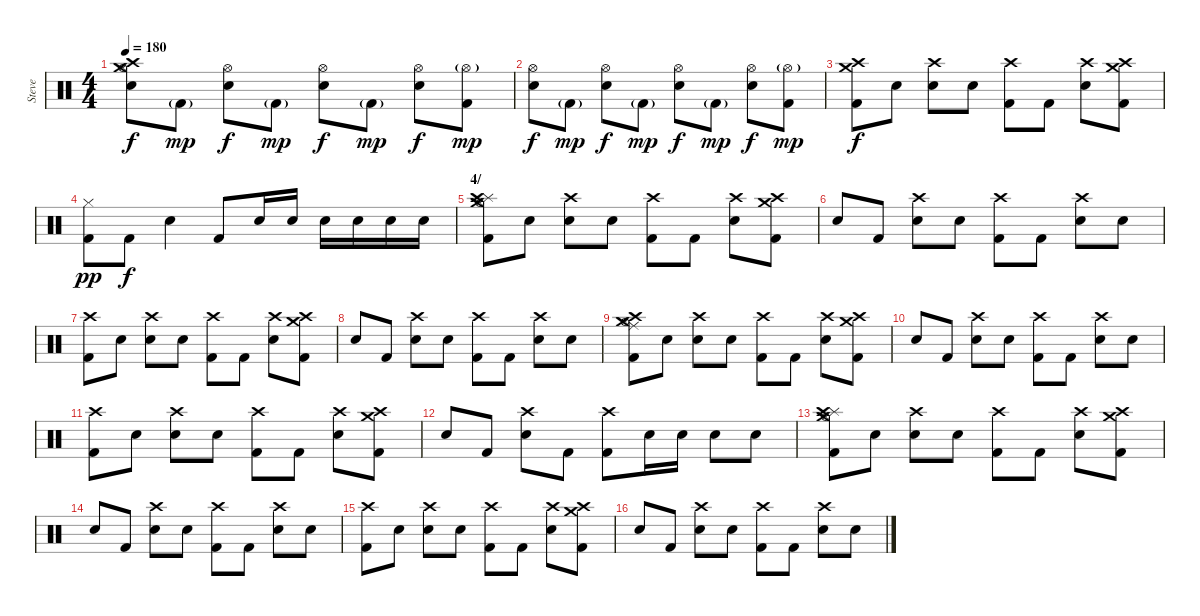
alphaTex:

\track ("Steve" "Steve") {instrument percussion}
\staff {score}
\articulation defaults
\ts (4 4)
\tempo 180
\clef neutral
\ks c
("Crash medium (hit)" "Crash high (hit)" "Hi-Hat (open)" "Electric Snare (hit)").8{dy f} "Kick (hit) 2"{g}.8{dy mp} ("Hi-Hat (open)" "Electric Snare (hit)").8{dy f} "Kick (hit) 2"{g}.8{dy mp} ("Hi-Hat (open)" "Electric Snare (hit)").8{dy f} "Kick (hit) 2"{g}.8{dy mp} ("Hi-Hat (open)" "Electric Snare (hit)").8{dy f} ("Hi-Hat (open)"{g} "Kick (hit) 2").8{dy mp} |
("Hi-Hat (open)" "Electric Snare (hit)").8{dy f} "Kick (hit) 2"{g}.8{dy mp} ("Hi-Hat (open)" "Electric Snare (hit)").8{dy f} "Kick (hit) 2"{g}.8{dy mp} ("Hi-Hat (open)" "Electric Snare (hit)").8{dy f} "Kick (hit) 2"{g}.8{dy mp} ("Hi-Hat (open)" "Electric Snare (hit)").8{dy f} ("Hi-Hat (open)"{g} "Kick (hit) 2").8{dy mp} |
("Crash medium (hit)" "Crash high (hit)" "Kick (hit) 2").8{dy f} "Snare (hit)"{x}.8 ("Crash high (hit)" "Electric Snare (hit)").8 "Snare (hit)"{x}.8 ("Crash high (hit)" "Kick (hit) 2").8 "Kick (hit) 2".8 ("Crash high (hit)" "Electric Snare (hit)").8 ("Crash high (hit)" "Crash medium (hit)" "Kick (hit) 2").8 |
("Hi-Hat (closed)" "Kick (hit) 2").8{dy pp} "Kick (hit) 2".8{dy f} "Electric Snare (hit)".4 "Kick (hit) 2".8 "Electric Snare (hit)".16 "Electric Snare (hit)".16 "Electric Snare (hit)".16 "Electric Snare (hit)".16 "Electric Snare (hit)".16 "Electric Snare (hit)".16 |
\section ("" "4/")
("Splash (hit)" "Hi-Hat (open)" "Crash medium (hit)" "Crash high (hit)" "Kick (hit) 2").8 "Snare (hit)"{x}.8 ("Crash high (hit)" "Electric Snare (hit)").8 "Snare (hit)"{x}.8 ("Crash high (hit)" "Kick (hit) 2").8 "Kick (hit) 2".8 ("Crash high (hit)" "Electric Snare (hit)").8 ("Crash high (hit)" "Crash medium (hit)" "Kick (hit) 2").8 |
"Snare (hit)"{x}.8 "Kick (hit) 2".8 ("Crash high (hit)" "Electric Snare (hit)").8 "Snare (hit)"{x}.8 ("Crash high (hit)" "Kick (hit) 2").8 "Kick (hit) 2".8 ("Crash high (hit)" "Electric Snare (hit)").8 "Snare (hit)"{x}.8 |
("Crash high (hit)" "Kick (hit) 2").8 "Snare (hit)"{x}.8 ("Crash high (hit)" "Electric Snare (hit)").8 "Snare (hit)"{x}.8 ("Crash high (hit)" "Kick (hit) 2").8 "Kick (hit) 2".8 ("Crash high (hit)" "Electric Snare (hit)").8 ("Crash high (hit)" "Crash medium (hit)" "Kick (hit) 2").8 |
"Snare (hit)"{x}.8 "Kick (hit) 2".8 ("Crash high (hit)" "Electric Snare (hit)").8 "Snare (hit)"{x}.8 ("Crash high (hit)" "Kick (hit) 2").8 "Kick (hit) 2".8 ("Crash high (hit)" "Electric Snare (hit)").8 "Electric Snare (hit)".8 |
("Ride (middle)" "Hi-Hat (open)" "Crash medium (hit)" "Crash high (hit)" "Kick (hit) 2").8 "Snare (hit)"{x}.8 ("Crash high (hit)" "Electric Snare (hit)").8 "Snare (hit)"{x}.8 ("Crash high (hit)" "Kick (hit) 2").8 "Kick (hit) 2".8 ("Crash high (hit)" "Electric Snare (hit)").8 ("Crash high (hit)" "Crash medium (hit)" "Kick (hit) 2").8 |
"Snare (hit)"{x}.8 "Kick (hit) 2".8 ("Crash high (hit)" "Electric Snare (hit)").8 "Snare (hit)"{x}.8 ("Crash high (hit)" "Kick (hit) 2").8 "Kick (hit) 2".8 ("Crash high (hit)" "Electric Snare (hit)").8 "Snare (hit)"{x}.8 |
("Crash high (hit)" "Kick (hit) 2").8 "Snare (hit)"{x}.8 ("Crash high (hit)" "Electric Snare (hit)").8 "Snare (hit)"{x}.8 ("Crash high (hit)" "Kick (hit) 2").8 "Kick (hit) 2".8 ("Crash high (hit)" "Electric Snare (hit)").8 ("Crash high (hit)" "Crash medium (hit)" "Kick (hit) 2").8 |
"Snare (hit)"{x}.8 "Kick (hit) 2".8 ("Crash high (hit)" "Electric Snare (hit)").8 "Kick (hit) 2".8 ("Crash high (hit)" "Kick (hit) 2").8 "Electric Snare (hit)".16 "Electric Snare (hit)".16 "Electric Snare (hit)".8 "Electric Snare (hit)".8 |
("Splash (hit)" "Hi-Hat (open)" "Crash medium (hit)" "Crash high (hit)" "Kick (hit) 2").8 "Snare (hit)"{x}.8 ("Crash high (hit)" "Electric Snare (hit)").8 "Snare (hit)"{x}.8 ("Crash high (hit)" "Kick (hit) 2").8 "Kick (hit) 2".8 ("Crash high (hit)" "Electric Snare (hit)").8 ("Crash high (hit)" "Crash medium (hit)" "Kick (hit) 2").8 |
"Snare (hit)"{x}.8 "Kick (hit) 2".8 ("Crash high (hit)" "Electric Snare (hit)").8 "Snare (hit)"{x}.8 ("Crash high (hit)" "Kick (hit) 2").8 "Kick (hit) 2".8 ("Crash high (hit)" "Electric Snare (hit)").8 "Snare (hit)"{x}.8 |
("Crash high (hit)" "Kick (hit) 2").8 "Snare (hit)"{x}.8 ("Crash high (hit)" "Electric Snare (hit)").8 "Snare (hit)"{x}.8 ("Crash high (hit)" "Kick (hit) 2").8 "Kick (hit) 2".8 ("Crash high (hit)" "Electric Snare (hit)").8 ("Crash high (hit)" "Crash medium (hit)" "Kick (hit) 2").8 |
"Snare (hit)"{x}.8 "Kick (hit) 2".8 ("Crash high (hit)" "Electric Snare (hit)").8 "Snare (hit)"{x}.8 ("Crash high (hit)" "Kick (hit) 2").8 "Kick (hit) 2".8 ("Crash high (hit)" "Electric Snare (hit)").8 "Snare (hit)"{x}.8
